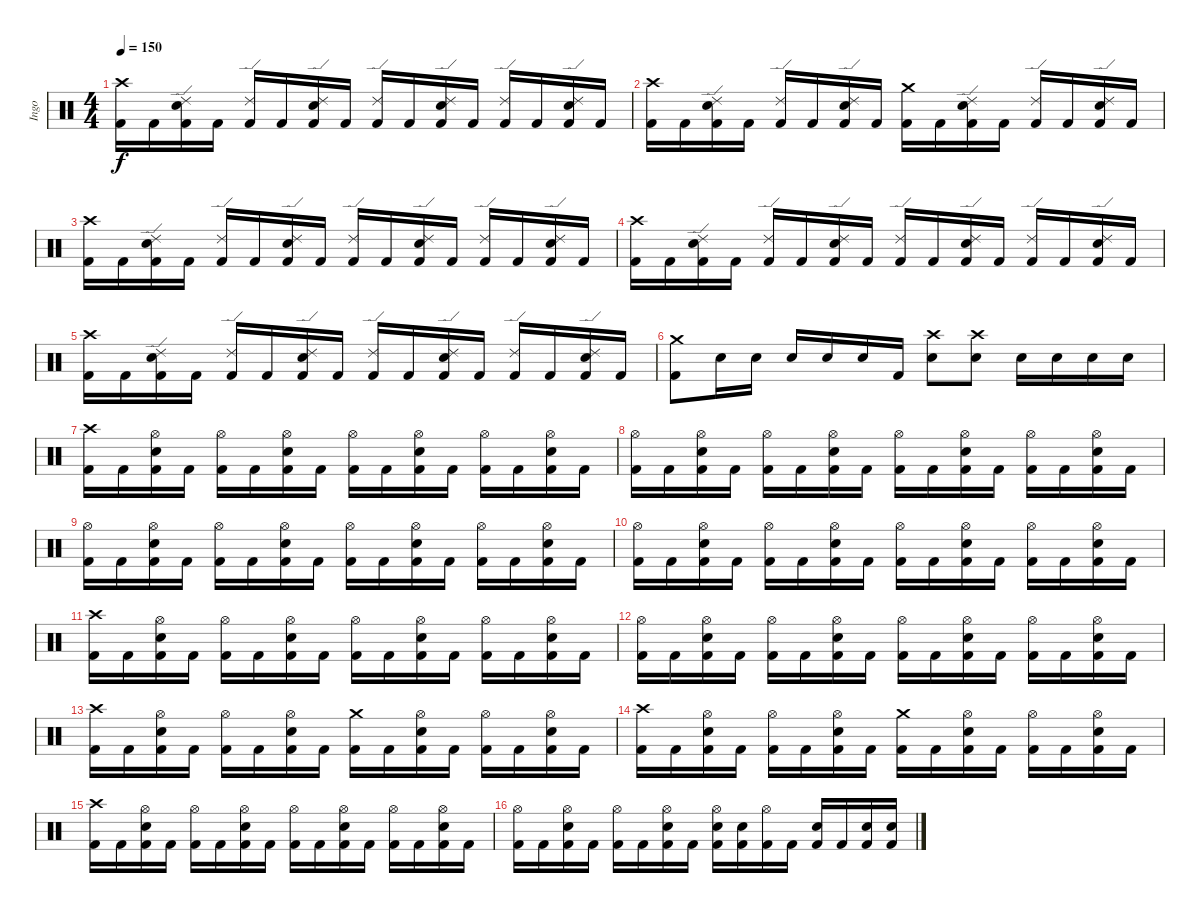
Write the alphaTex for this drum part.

\track ("Ingo" "Ingo") {instrument percussion}
\staff {score}
\articulation defaults
\ts (4 4)
\tempo 150
\clef neutral
\ks c
("Crash high (hit)" "Kick (hit) 2").16{dy f} "Kick (hit) 2".16 ("Ride (edge) 2" "Electric Snare (hit)" "Kick (hit) 2").16 "Kick (hit) 2".16 ("Ride (edge) 2" "Kick (hit) 2").16 "Kick (hit) 2".16 ("Ride (edge) 2" "Electric Snare (hit)" "Kick (hit) 2").16 "Kick (hit) 2".16 ("Ride (edge) 2" "Kick (hit) 2").16 "Kick (hit) 2".16 ("Ride (edge) 2" "Electric Snare (hit)" "Kick (hit) 2").16 "Kick (hit) 2".16 ("Ride (edge) 2" "Kick (hit) 2").16 "Kick (hit) 2".16 ("Ride (edge) 2" "Electric Snare (hit)" "Kick (hit) 2").16 "Kick (hit) 2".16 |
("Crash high (hit)" "Kick (hit) 2").16 "Kick (hit) 2".16 ("Ride (edge) 2" "Electric Snare (hit)" "Kick (hit) 2").16 "Kick (hit) 2".16 ("Ride (edge) 2" "Kick (hit) 2").16 "Kick (hit) 2".16 ("Ride (edge) 2" "Electric Snare (hit)" "Kick (hit) 2").16 "Kick (hit) 2".16 ("Crash medium (hit)" "Kick (hit) 2").16 "Kick (hit) 2".16 ("Ride (edge) 2" "Electric Snare (hit)" "Kick (hit) 2").16 "Kick (hit) 2".16 ("Ride (edge) 2" "Kick (hit) 2").16 "Kick (hit) 2".16 ("Ride (edge) 2" "Electric Snare (hit)" "Kick (hit) 2").16 "Kick (hit) 2".16 |
("Crash high (hit)" "Kick (hit) 2").16 "Kick (hit) 2".16 ("Ride (edge) 2" "Electric Snare (hit)" "Kick (hit) 2").16 "Kick (hit) 2".16 ("Ride (edge) 2" "Kick (hit) 2").16 "Kick (hit) 2".16 ("Ride (edge) 2" "Electric Snare (hit)" "Kick (hit) 2").16 "Kick (hit) 2".16 ("Ride (edge) 2" "Kick (hit) 2").16 "Kick (hit) 2".16 ("Ride (edge) 2" "Electric Snare (hit)" "Kick (hit) 2").16 "Kick (hit) 2".16 ("Ride (edge) 2" "Kick (hit) 2").16 "Kick (hit) 2".16 ("Ride (edge) 2" "Electric Snare (hit)" "Kick (hit) 2").16 "Kick (hit) 2".16 |
("Crash high (hit)" "Kick (hit) 2").16 "Kick (hit) 2".16 ("Ride (edge) 2" "Electric Snare (hit)" "Kick (hit) 2").16 "Kick (hit) 2".16 ("Ride (edge) 2" "Kick (hit) 2").16 "Kick (hit) 2".16 ("Ride (edge) 2" "Electric Snare (hit)" "Kick (hit) 2").16 "Kick (hit) 2".16 ("Ride (edge) 2" "Kick (hit) 2").16 "Kick (hit) 2".16 ("Ride (edge) 2" "Electric Snare (hit)" "Kick (hit) 2").16 "Kick (hit) 2".16 ("Ride (edge) 2" "Kick (hit) 2").16 "Kick (hit) 2".16 ("Ride (edge) 2" "Electric Snare (hit)" "Kick (hit) 2").16 "Kick (hit) 2".16 |
("Crash high (hit)" "Kick (hit) 2").16 "Kick (hit) 2".16 ("Ride (edge) 2" "Electric Snare (hit)" "Kick (hit) 2").16 "Kick (hit) 2".16 ("Ride (edge) 2" "Kick (hit) 2").16 "Kick (hit) 2".16 ("Ride (edge) 2" "Electric Snare (hit)" "Kick (hit) 2").16 "Kick (hit) 2".16 ("Ride (edge) 2" "Kick (hit) 2").16 "Kick (hit) 2".16 ("Ride (edge) 2" "Electric Snare (hit)" "Kick (hit) 2").16 "Kick (hit) 2".16 ("Ride (edge) 2" "Kick (hit) 2").16 "Kick (hit) 2".16 ("Ride (edge) 2" "Electric Snare (hit)" "Kick (hit) 2").16 "Kick (hit) 2".16 |
("Crash medium (hit)" "Kick (hit) 2").8 "Electric Snare (hit)".16 "Electric Snare (hit)".16 "Electric Snare (hit)".16 "Electric Snare (hit)".16 "Electric Snare (hit)".16 "Kick (hit) 2".16 ("Crash high (hit)" "Electric Snare (hit)").8 ("Crash high (hit)" "Electric Snare (hit)").8 "Electric Snare (hit)".16 "Electric Snare (hit)".16 "Electric Snare (hit)".16 "Electric Snare (hit)".16 |
("Crash high (hit)" "Kick (hit) 2").16 "Kick (hit) 2".16 ("Hi-Hat (open)" "Electric Snare (hit)" "Kick (hit) 2").16 "Kick (hit) 2".16 ("Hi-Hat (open)" "Kick (hit) 2").16 "Kick (hit) 2".16 ("Hi-Hat (open)" "Electric Snare (hit)" "Kick (hit) 2").16 "Kick (hit) 2".16 ("Hi-Hat (open)" "Kick (hit) 2").16 "Kick (hit) 2".16 ("Hi-Hat (open)" "Electric Snare (hit)" "Kick (hit) 2").16 "Kick (hit) 2".16 ("Hi-Hat (open)" "Kick (hit) 2").16 "Kick (hit) 2".16 ("Hi-Hat (open)" "Electric Snare (hit)" "Kick (hit) 2").16 "Kick (hit) 2".16 |
("Hi-Hat (open)" "Kick (hit) 2").16 "Kick (hit) 2".16 ("Hi-Hat (open)" "Electric Snare (hit)" "Kick (hit) 2").16 "Kick (hit) 2".16 ("Hi-Hat (open)" "Kick (hit) 2").16 "Kick (hit) 2".16 ("Hi-Hat (open)" "Electric Snare (hit)" "Kick (hit) 2").16 "Kick (hit) 2".16 ("Hi-Hat (open)" "Kick (hit) 2").16 "Kick (hit) 2".16 ("Hi-Hat (open)" "Electric Snare (hit)" "Kick (hit) 2").16 "Kick (hit) 2".16 ("Hi-Hat (open)" "Kick (hit) 2").16 "Kick (hit) 2".16 ("Hi-Hat (open)" "Electric Snare (hit)" "Kick (hit) 2").16 "Kick (hit) 2".16 |
("Hi-Hat (open)" "Kick (hit) 2").16 "Kick (hit) 2".16 ("Hi-Hat (open)" "Electric Snare (hit)" "Kick (hit) 2").16 "Kick (hit) 2".16 ("Hi-Hat (open)" "Kick (hit) 2").16 "Kick (hit) 2".16 ("Hi-Hat (open)" "Electric Snare (hit)" "Kick (hit) 2").16 "Kick (hit) 2".16 ("Hi-Hat (open)" "Kick (hit) 2").16 "Kick (hit) 2".16 ("Hi-Hat (open)" "Electric Snare (hit)" "Kick (hit) 2").16 "Kick (hit) 2".16 ("Hi-Hat (open)" "Kick (hit) 2").16 "Kick (hit) 2".16 ("Hi-Hat (open)" "Electric Snare (hit)" "Kick (hit) 2").16 "Kick (hit) 2".16 |
("Hi-Hat (open)" "Kick (hit) 2").16 "Kick (hit) 2".16 ("Hi-Hat (open)" "Electric Snare (hit)" "Kick (hit) 2").16 "Kick (hit) 2".16 ("Hi-Hat (open)" "Kick (hit) 2").16 "Kick (hit) 2".16 ("Hi-Hat (open)" "Electric Snare (hit)" "Kick (hit) 2").16 "Kick (hit) 2".16 ("Hi-Hat (open)" "Kick (hit) 2").16 "Kick (hit) 2".16 ("Hi-Hat (open)" "Electric Snare (hit)" "Kick (hit) 2").16 "Kick (hit) 2".16 ("Hi-Hat (open)" "Kick (hit) 2").16 "Kick (hit) 2".16 ("Hi-Hat (open)" "Electric Snare (hit)" "Kick (hit) 2").16 "Kick (hit) 2".16 |
("Crash high (hit)" "Kick (hit) 2").16 "Kick (hit) 2".16 ("Hi-Hat (open)" "Electric Snare (hit)" "Kick (hit) 2").16 "Kick (hit) 2".16 ("Hi-Hat (open)" "Kick (hit) 2").16 "Kick (hit) 2".16 ("Hi-Hat (open)" "Electric Snare (hit)" "Kick (hit) 2").16 "Kick (hit) 2".16 ("Hi-Hat (open)" "Kick (hit) 2").16 "Kick (hit) 2".16 ("Hi-Hat (open)" "Electric Snare (hit)" "Kick (hit) 2").16 "Kick (hit) 2".16 ("Hi-Hat (open)" "Kick (hit) 2").16 "Kick (hit) 2".16 ("Hi-Hat (open)" "Electric Snare (hit)" "Kick (hit) 2").16 "Kick (hit) 2".16 |
("Hi-Hat (open)" "Kick (hit) 2").16 "Kick (hit) 2".16 ("Hi-Hat (open)" "Electric Snare (hit)" "Kick (hit) 2").16 "Kick (hit) 2".16 ("Hi-Hat (open)" "Kick (hit) 2").16 "Kick (hit) 2".16 ("Hi-Hat (open)" "Electric Snare (hit)" "Kick (hit) 2").16 "Kick (hit) 2".16 ("Hi-Hat (open)" "Kick (hit) 2").16 "Kick (hit) 2".16 ("Hi-Hat (open)" "Electric Snare (hit)" "Kick (hit) 2").16 "Kick (hit) 2".16 ("Hi-Hat (open)" "Kick (hit) 2").16 "Kick (hit) 2".16 ("Hi-Hat (open)" "Electric Snare (hit)" "Kick (hit) 2").16 "Kick (hit) 2".16 |
("Crash high (hit)" "Kick (hit) 2").16 "Kick (hit) 2".16 ("Hi-Hat (open)" "Electric Snare (hit)" "Kick (hit) 2").16 "Kick (hit) 2".16 ("Hi-Hat (open)" "Kick (hit) 2").16 "Kick (hit) 2".16 ("Hi-Hat (open)" "Electric Snare (hit)" "Kick (hit) 2").16 "Kick (hit) 2".16 ("Crash medium (hit)" "Kick (hit) 2").16 "Kick (hit) 2".16 ("Hi-Hat (open)" "Electric Snare (hit)" "Kick (hit) 2").16 "Kick (hit) 2".16 ("Hi-Hat (open)" "Kick (hit) 2").16 "Kick (hit) 2".16 ("Hi-Hat (open)" "Electric Snare (hit)" "Kick (hit) 2").16 "Kick (hit) 2".16 |
("Crash high (hit)" "Kick (hit) 2").16 "Kick (hit) 2".16 ("Hi-Hat (open)" "Electric Snare (hit)" "Kick (hit) 2").16 "Kick (hit) 2".16 ("Hi-Hat (open)" "Kick (hit) 2").16 "Kick (hit) 2".16 ("Hi-Hat (open)" "Electric Snare (hit)" "Kick (hit) 2").16 "Kick (hit) 2".16 ("Crash medium (hit)" "Kick (hit) 2").16 "Kick (hit) 2".16 ("Hi-Hat (open)" "Electric Snare (hit)" "Kick (hit) 2").16 "Kick (hit) 2".16 ("Hi-Hat (open)" "Kick (hit) 2").16 "Kick (hit) 2".16 ("Hi-Hat (open)" "Electric Snare (hit)" "Kick (hit) 2").16 "Kick (hit) 2".16 |
("Crash high (hit)" "Kick (hit) 2").16 "Kick (hit) 2".16 ("Hi-Hat (open)" "Electric Snare (hit)" "Kick (hit) 2").16 "Kick (hit) 2".16 ("Hi-Hat (open)" "Kick (hit) 2").16 "Kick (hit) 2".16 ("Hi-Hat (open)" "Electric Snare (hit)" "Kick (hit) 2").16 "Kick (hit) 2".16 ("Hi-Hat (open)" "Kick (hit) 2").16 "Kick (hit) 2".16 ("Hi-Hat (open)" "Electric Snare (hit)" "Kick (hit) 2").16 "Kick (hit) 2".16 ("Hi-Hat (open)" "Kick (hit) 2").16 "Kick (hit) 2".16 ("Hi-Hat (open)" "Electric Snare (hit)" "Kick (hit) 2").16 "Kick (hit) 2".16 |
("Hi-Hat (open)" "Kick (hit) 2").16 "Kick (hit) 2".16 ("Hi-Hat (open)" "Electric Snare (hit)" "Kick (hit) 2").16 "Kick (hit) 2".16 ("Hi-Hat (open)" "Kick (hit) 2").16 "Kick (hit) 2".16 ("Hi-Hat (open)" "Electric Snare (hit)" "Kick (hit) 2").16 "Kick (hit) 2".16 ("Hi-Hat (open)" "Electric Snare (hit)" "Kick (hit) 2").16 ("Electric Snare (hit)" "Kick (hit) 2").16 ("Hi-Hat (open)" "Kick (hit) 2").16 "Kick (hit) 2".16 ("Electric Snare (hit)" "Kick (hit) 2").16 "Kick (hit) 2".16 ("Electric Snare (hit)" "Kick (hit) 2").16 ("Electric Snare (hit)" "Kick (hit) 2").16
